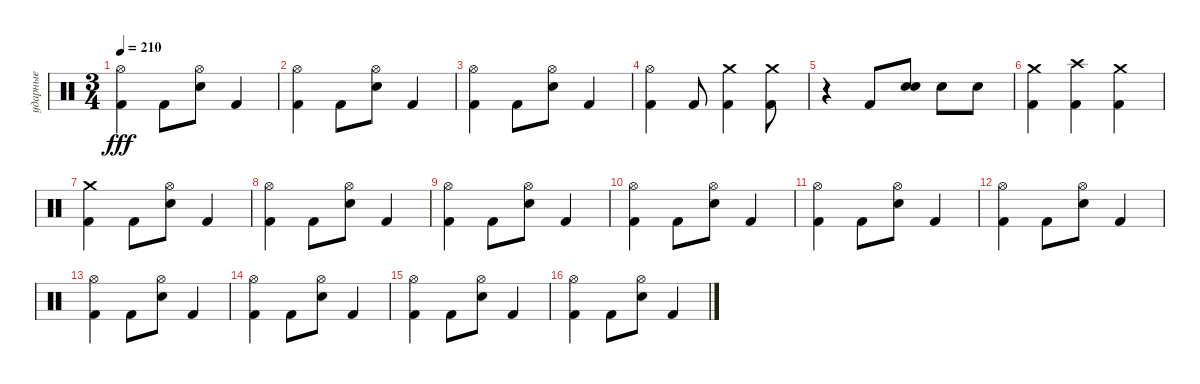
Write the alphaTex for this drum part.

\track ("ударные" "ударные") {instrument percussion}
\staff {score}
\articulation defaults
\ts (3 4)
\tempo 210
\clef neutral
\ks c
("Hi-Hat (open)" "Kick (hit) 2").4{dy fff} "Kick (hit) 2".8 ("Hi-Hat (open)" "Snare (hit) 2").8 "Kick (hit) 2".4 |
("Hi-Hat (open)" "Kick (hit) 2").4 "Kick (hit) 2".8 ("Hi-Hat (open)" "Snare (hit) 2").8 "Kick (hit) 2".4 |
("Hi-Hat (open)" "Kick (hit) 2").4 "Kick (hit) 2".8 ("Hi-Hat (open)" "Snare (hit) 2").8 "Kick (hit) 2".4 |
("Hi-Hat (open)" "Kick (hit) 2").4 "Kick (hit) 2".8 ("Crash medium (hit)" "Kick (hit) 2").4 ("Crash medium (hit)" "Kick (hit) 2").8 |
r.4 "Kick (hit) 2".8 ("Snare (hit) 2" "Snare (hit) 2").8{bd 120} "Snare (hit) 2".8 "Snare (hit) 2".8 |
("Crash medium (hit)" "Kick (hit) 2").4 ("Crash high (hit)" "Kick (hit) 2").4 ("Crash medium (hit)" "Kick (hit) 2").4 |
("Crash medium (hit)" "Kick (hit) 2").4 "Kick (hit) 2".8 ("Hi-Hat (open)" "Snare (hit) 2").8 "Kick (hit) 2".4 |
("Hi-Hat (open)" "Kick (hit) 2").4 "Kick (hit) 2".8 ("Hi-Hat (open)" "Snare (hit) 2").8 "Kick (hit) 2".4 |
("Hi-Hat (open)" "Kick (hit) 2").4 "Kick (hit) 2".8 ("Hi-Hat (open)" "Snare (hit) 2").8 "Kick (hit) 2".4 |
("Hi-Hat (open)" "Kick (hit) 2").4 "Kick (hit) 2".8 ("Hi-Hat (open)" "Snare (hit) 2").8 "Kick (hit) 2".4 |
("Hi-Hat (open)" "Kick (hit) 2").4 "Kick (hit) 2".8 ("Hi-Hat (open)" "Snare (hit) 2").8 "Kick (hit) 2".4 |
("Hi-Hat (open)" "Kick (hit) 2").4 "Kick (hit) 2".8 ("Hi-Hat (open)" "Snare (hit) 2").8 "Kick (hit) 2".4 |
("Hi-Hat (open)" "Kick (hit) 2").4 "Kick (hit) 2".8 ("Hi-Hat (open)" "Snare (hit) 2").8 "Kick (hit) 2".4 |
("Hi-Hat (open)" "Kick (hit) 2").4 "Kick (hit) 2".8 ("Hi-Hat (open)" "Snare (hit) 2").8 "Kick (hit) 2".4 |
("Hi-Hat (open)" "Kick (hit) 2").4 "Kick (hit) 2".8 ("Hi-Hat (open)" "Snare (hit) 2").8 "Kick (hit) 2".4 |
("Hi-Hat (open)" "Kick (hit) 2").4 "Kick (hit) 2".8 ("Hi-Hat (open)" "Snare (hit) 2").8 "Kick (hit) 2".4
